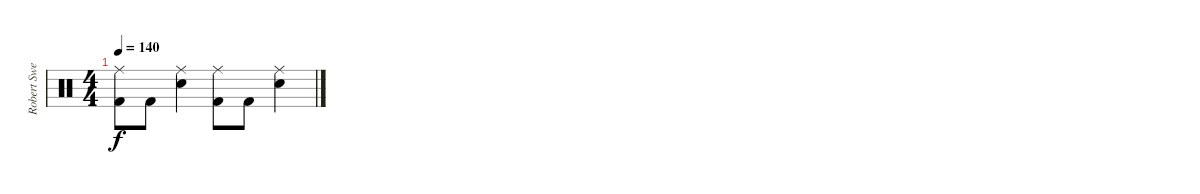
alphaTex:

\track ("Robert Sweet" "Robert Swe") {instrument percussion}
\staff {score}
\articulation defaults
\ts (4 4)
\tempo 140
\clef neutral
\ks c
("Kick (hit) 2" "Ride (middle)").8{dy f} "Kick (hit) 2".8 ("Electric Snare (hit)" "Ride (middle)").4 ("Kick (hit) 2" "Ride (middle)").8 "Kick (hit) 2".8 ("Electric Snare (hit)" "Ride (middle)").4
